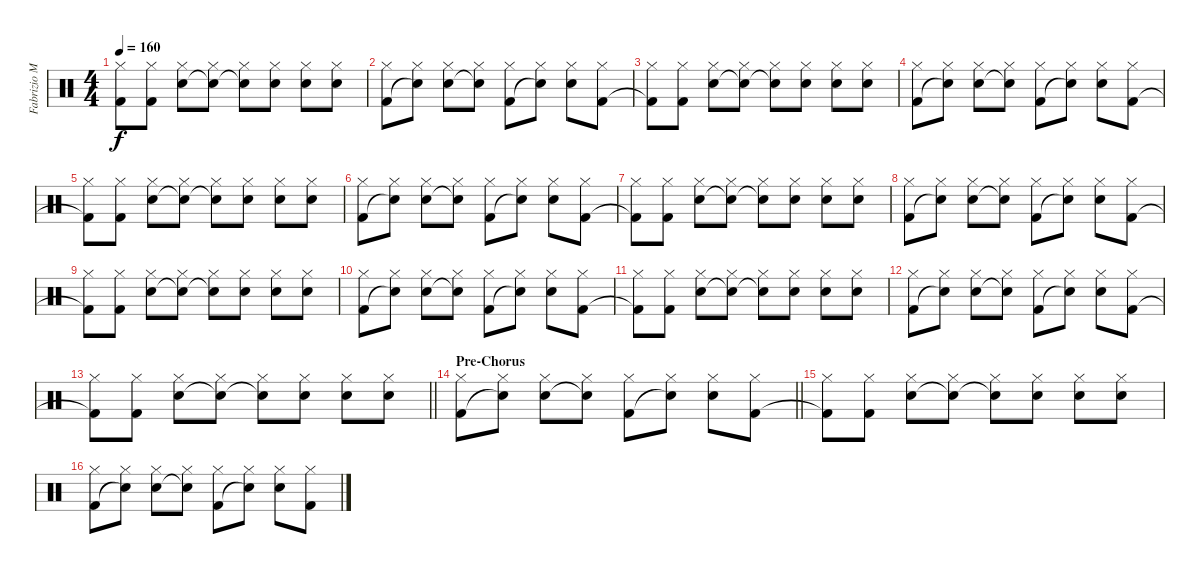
\track ("Fabrizio Moretti" "Fabrizio M") {instrument percussion}
\staff {score}
\articulation defaults
\ts (4 4)
\tempo 160
\clef neutral
\ks c
("Hi-Hat (closed)" "Kick (hit) 2"{t}).8{dy f} ("Hi-Hat (closed)" "Kick (hit) 2").8 ("Hi-Hat (closed)" "Electric Snare (hit)").8 ("Hi-Hat (closed)" "Snare (hit)"{t}).8 ("Hi-Hat (closed)" "Snare (hit)"{t}).8 ("Hi-Hat (closed)" "Electric Snare (hit)").8 ("Hi-Hat (closed)" "Electric Snare (hit)").8 ("Hi-Hat (closed)" "Electric Snare (hit)").8 |
("Hi-Hat (closed)" "Kick (hit) 2").8 ("Hi-Hat (closed)" "Snare (hit)"{t}).8 ("Hi-Hat (closed)" "Electric Snare (hit)").8 ("Hi-Hat (closed)" "Snare (hit)"{t}).8 ("Hi-Hat (closed)" "Kick (hit) 2").8 ("Hi-Hat (closed)" "Snare (hit)"{t}).8 ("Hi-Hat (closed)" "Electric Snare (hit)").8 ("Hi-Hat (closed)" "Kick (hit) 2").8 |
("Hi-Hat (closed)" "Kick (hit) 2"{t}).8 ("Hi-Hat (closed)" "Kick (hit) 2").8 ("Hi-Hat (closed)" "Electric Snare (hit)").8 ("Hi-Hat (closed)" "Snare (hit)"{t}).8 ("Hi-Hat (closed)" "Snare (hit)"{t}).8 ("Hi-Hat (closed)" "Electric Snare (hit)").8 ("Hi-Hat (closed)" "Electric Snare (hit)").8 ("Hi-Hat (closed)" "Electric Snare (hit)").8 |
("Hi-Hat (closed)" "Kick (hit) 2").8 ("Hi-Hat (closed)" "Snare (hit)"{t}).8 ("Hi-Hat (closed)" "Electric Snare (hit)").8 ("Hi-Hat (closed)" "Snare (hit)"{t}).8 ("Hi-Hat (closed)" "Kick (hit) 2").8 ("Hi-Hat (closed)" "Snare (hit)"{t}).8 ("Hi-Hat (closed)" "Electric Snare (hit)").8 ("Hi-Hat (closed)" "Kick (hit) 2").8 |
("Hi-Hat (closed)" "Kick (hit) 2"{t}).8 ("Hi-Hat (closed)" "Kick (hit) 2").8 ("Hi-Hat (closed)" "Electric Snare (hit)").8 ("Hi-Hat (closed)" "Snare (hit)"{t}).8 ("Hi-Hat (closed)" "Snare (hit)"{t}).8 ("Hi-Hat (closed)" "Electric Snare (hit)").8 ("Hi-Hat (closed)" "Electric Snare (hit)").8 ("Hi-Hat (closed)" "Electric Snare (hit)").8 |
("Hi-Hat (closed)" "Kick (hit) 2").8 ("Hi-Hat (closed)" "Snare (hit)"{t}).8 ("Hi-Hat (closed)" "Electric Snare (hit)").8 ("Hi-Hat (closed)" "Snare (hit)"{t}).8 ("Hi-Hat (closed)" "Kick (hit) 2").8 ("Hi-Hat (closed)" "Snare (hit)"{t}).8 ("Hi-Hat (closed)" "Electric Snare (hit)").8 ("Hi-Hat (closed)" "Kick (hit) 2").8 |
("Hi-Hat (closed)" "Kick (hit) 2"{t}).8 ("Hi-Hat (closed)" "Kick (hit) 2").8 ("Hi-Hat (closed)" "Electric Snare (hit)").8 ("Hi-Hat (closed)" "Snare (hit)"{t}).8 ("Hi-Hat (closed)" "Snare (hit)"{t}).8 ("Hi-Hat (closed)" "Electric Snare (hit)").8 ("Hi-Hat (closed)" "Electric Snare (hit)").8 ("Hi-Hat (closed)" "Electric Snare (hit)").8 |
("Hi-Hat (closed)" "Kick (hit) 2").8 ("Hi-Hat (closed)" "Snare (hit)"{t}).8 ("Hi-Hat (closed)" "Electric Snare (hit)").8 ("Hi-Hat (closed)" "Snare (hit)"{t}).8 ("Hi-Hat (closed)" "Kick (hit) 2").8 ("Hi-Hat (closed)" "Snare (hit)"{t}).8 ("Hi-Hat (closed)" "Electric Snare (hit)").8 ("Hi-Hat (closed)" "Kick (hit) 2").8 |
("Hi-Hat (closed)" "Kick (hit) 2"{t}).8 ("Hi-Hat (closed)" "Kick (hit) 2").8 ("Hi-Hat (closed)" "Electric Snare (hit)").8 ("Hi-Hat (closed)" "Snare (hit)"{t}).8 ("Hi-Hat (closed)" "Snare (hit)"{t}).8 ("Hi-Hat (closed)" "Electric Snare (hit)").8 ("Hi-Hat (closed)" "Electric Snare (hit)").8 ("Hi-Hat (closed)" "Electric Snare (hit)").8 |
("Hi-Hat (closed)" "Kick (hit) 2").8 ("Hi-Hat (closed)" "Snare (hit)"{t}).8 ("Hi-Hat (closed)" "Electric Snare (hit)").8 ("Hi-Hat (closed)" "Snare (hit)"{t}).8 ("Hi-Hat (closed)" "Kick (hit) 2").8 ("Hi-Hat (closed)" "Snare (hit)"{t}).8 ("Hi-Hat (closed)" "Electric Snare (hit)").8 ("Hi-Hat (closed)" "Kick (hit) 2").8 |
("Hi-Hat (closed)" "Kick (hit) 2"{t}).8 ("Hi-Hat (closed)" "Kick (hit) 2").8 ("Hi-Hat (closed)" "Electric Snare (hit)").8 ("Hi-Hat (closed)" "Snare (hit)"{t}).8 ("Hi-Hat (closed)" "Snare (hit)"{t}).8 ("Hi-Hat (closed)" "Electric Snare (hit)").8 ("Hi-Hat (closed)" "Electric Snare (hit)").8 ("Hi-Hat (closed)" "Electric Snare (hit)").8 |
("Hi-Hat (closed)" "Kick (hit) 2").8 ("Hi-Hat (closed)" "Snare (hit)"{t}).8 ("Hi-Hat (closed)" "Electric Snare (hit)").8 ("Hi-Hat (closed)" "Snare (hit)"{t}).8 ("Hi-Hat (closed)" "Kick (hit) 2").8 ("Hi-Hat (closed)" "Snare (hit)"{t}).8 ("Hi-Hat (closed)" "Electric Snare (hit)").8 ("Hi-Hat (closed)" "Kick (hit) 2").8 |
\barLineRight lightlight
("Hi-Hat (closed)" "Kick (hit) 2"{t}).8 ("Hi-Hat (closed)" "Kick (hit) 2").8 ("Hi-Hat (closed)" "Electric Snare (hit)").8 ("Hi-Hat (closed)" "Snare (hit)"{t}).8 ("Hi-Hat (closed)" "Snare (hit)"{t}).8 ("Hi-Hat (closed)" "Electric Snare (hit)").8 ("Hi-Hat (closed)" "Electric Snare (hit)").8 ("Hi-Hat (closed)" "Electric Snare (hit)").8 |
\section ("" "Pre-Chorus")
\barLineRight lightlight
("Hi-Hat (closed)" "Kick (hit) 2").8 ("Hi-Hat (closed)" "Snare (hit)"{t}).8 ("Hi-Hat (closed)" "Electric Snare (hit)").8 ("Hi-Hat (closed)" "Snare (hit)"{t}).8 ("Hi-Hat (closed)" "Kick (hit) 2").8 ("Hi-Hat (closed)" "Snare (hit)"{t}).8 ("Hi-Hat (closed)" "Electric Snare (hit)").8 ("Hi-Hat (closed)" "Kick (hit) 2").8 |
("Hi-Hat (closed)" "Kick (hit) 2"{t}).8 ("Hi-Hat (closed)" "Kick (hit) 2").8 ("Hi-Hat (closed)" "Electric Snare (hit)").8 ("Hi-Hat (closed)" "Snare (hit)"{t}).8 ("Hi-Hat (closed)" "Snare (hit)"{t}).8 ("Hi-Hat (closed)" "Electric Snare (hit)").8 ("Hi-Hat (closed)" "Electric Snare (hit)").8 ("Hi-Hat (closed)" "Electric Snare (hit)").8 |
("Hi-Hat (closed)" "Kick (hit) 2").8 ("Hi-Hat (closed)" "Snare (hit)"{t}).8 ("Hi-Hat (closed)" "Electric Snare (hit)").8 ("Hi-Hat (closed)" "Snare (hit)"{t}).8 ("Hi-Hat (closed)" "Kick (hit) 2").8 ("Hi-Hat (closed)" "Snare (hit)"{t}).8 ("Hi-Hat (closed)" "Electric Snare (hit)").8 ("Hi-Hat (closed)" "Kick (hit) 2").8
